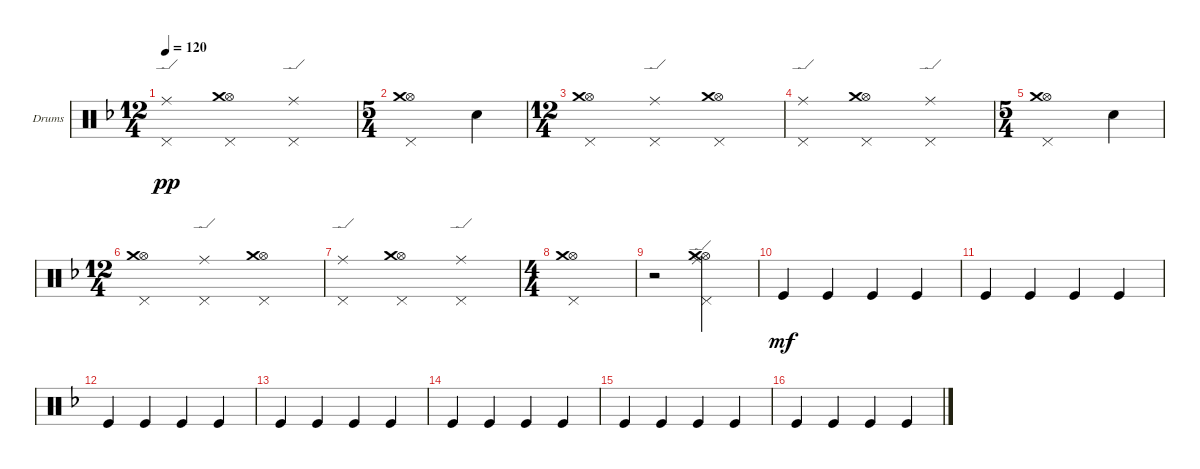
\defaultSystemsLayout 4
\bracketExtendMode groupsimilarinstruments
\firstSystemTrackNameOrientation horizontal
\otherSystemsTrackNameOrientation horizontal
\track ("Drumkit" "Drums") {instrument percussion}
\staff {score}
\articulation defaults
\ts (12 4)
\tempo 120
\clef neutral
\ks f
("Ride (edge)" "Pedal Hi-Hat (hit)").1{dy pp} ("Hi-Hat (open)" "Crash medium (hit)" "Pedal Hi-Hat (hit)").1 ("Ride (edge)" "Pedal Hi-Hat (hit)").1 |
\ts (5 4)
("Hi-Hat (open)" "Crash medium (hit)" "Pedal Hi-Hat (hit)").1 "Snare (hit) 2".4 |
\ts (12 4)
("Hi-Hat (open)" "Crash medium (hit)" "Pedal Hi-Hat (hit)").1 ("Ride (edge)" "Pedal Hi-Hat (hit)").1 ("Hi-Hat (open)" "Crash medium (hit)" "Pedal Hi-Hat (hit)").1 |
("Ride (edge)" "Pedal Hi-Hat (hit)").1 ("Hi-Hat (open)" "Crash medium (hit)" "Pedal Hi-Hat (hit)").1 ("Ride (edge)" "Pedal Hi-Hat (hit)").1 |
\ts (5 4)
("Hi-Hat (open)" "Crash medium (hit)" "Pedal Hi-Hat (hit)").1 "Snare (hit) 2".4 |
\ts (12 4)
("Hi-Hat (open)" "Crash medium (hit)" "Pedal Hi-Hat (hit)").1 ("Ride (edge)" "Pedal Hi-Hat (hit)").1 ("Hi-Hat (open)" "Crash medium (hit)" "Pedal Hi-Hat (hit)").1 |
("Ride (edge)" "Pedal Hi-Hat (hit)").1 ("Hi-Hat (open)" "Crash medium (hit)" "Pedal Hi-Hat (hit)").1 ("Ride (edge)" "Pedal Hi-Hat (hit)").1 |
\ts (4 4)
("Hi-Hat (open)" "Crash medium (hit)" "Pedal Hi-Hat (hit)").1 |
r.2 ("Hi-Hat (open)" "Crash medium (hit)" "Pedal Hi-Hat (hit)" "Ride (edge)").2 |
"Kick (hit)".4{dy mf} "Kick (hit)".4 "Kick (hit)".4 "Kick (hit)".4 |
"Kick (hit)".4 "Kick (hit)".4 "Kick (hit)".4 "Kick (hit)".4 |
"Kick (hit)".4 "Kick (hit)".4 "Kick (hit)".4 "Kick (hit)".4 |
"Kick (hit)".4 "Kick (hit)".4 "Kick (hit)".4 "Kick (hit)".4 |
"Kick (hit)".4 "Kick (hit)".4 "Kick (hit)".4 "Kick (hit)".4 |
"Kick (hit)".4 "Kick (hit)".4 "Kick (hit)".4 "Kick (hit)".4 |
"Kick (hit)".4 "Kick (hit)".4 "Kick (hit)".4 "Kick (hit)".4
